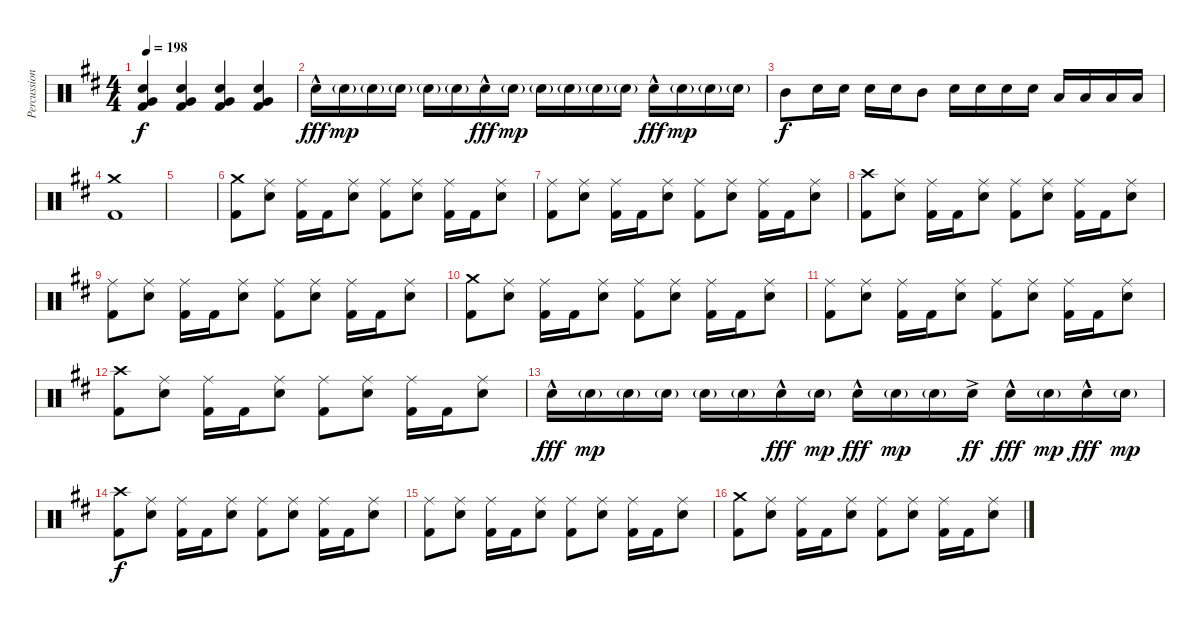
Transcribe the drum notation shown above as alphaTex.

\track ("Percussion" "Percussion") {instrument percussion}
\staff {score}
\articulation defaults
\ts (4 4)
\tempo 198
\clef neutral
\ks bminor
("Snare (hit) 2" "Very Low Tom (hit)" "Kick (hit) 2").4{dy f} ("Snare (hit) 2" "Very Low Tom (hit)" "Kick (hit) 2").4 ("Snare (hit) 2" "Very Low Tom (hit)" "Kick (hit) 2").4 ("Snare (hit) 2" "Very Low Tom (hit)" "Kick (hit) 2").4 |
"Snare (hit) 2"{hac}.16{dy fff} "Snare (hit) 2"{g}.16{dy mp} "Snare (hit) 2"{g}.16 "Snare (hit) 2"{g}.16 "Snare (hit) 2"{g}.16 "Snare (hit) 2"{g}.16 "Snare (hit) 2"{hac}.16{dy fff} "Snare (hit) 2"{g}.16{dy mp} "Snare (hit) 2"{g}.16 "Snare (hit) 2"{g}.16 "Snare (hit) 2"{g}.16 "Snare (hit) 2"{g}.16 "Snare (hit) 2"{hac}.16{dy fff} "Snare (hit) 2"{g}.16{dy mp} "Snare (hit) 2"{g}.16 "Snare (hit) 2"{g}.16 |
"Mid Tom (hit)".8{dy f} "Snare (hit) 2".16 "Snare (hit) 2".16 "Snare (hit) 2".16 "Snare (hit) 2".16 "Mid Tom (hit)".8 "Snare (hit) 2".16 "Snare (hit) 2".16 "Snare (hit) 2".16 "Snare (hit) 2".16 "Low Tom (hit)".16 "Low Tom (hit)".16 "Low Tom (hit)".16 "Low Tom (hit)".16 |
("Crash medium (hit)" "Kick (hit) 2").1 |
|
("Crash medium (hit)" "Kick (hit) 2").8 ("Ride (middle)" "Snare (hit) 2").8 ("Ride (middle)" "Kick (hit) 2").16 "Kick (hit) 2".16 ("Ride (middle)" "Snare (hit) 2").8 ("Ride (middle)" "Kick (hit) 2").8 ("Ride (middle)" "Snare (hit) 2").8 ("Ride (middle)" "Kick (hit) 2").16 "Kick (hit) 2".16 ("Ride (middle)" "Snare (hit) 2").8 |
("Ride (middle)" "Kick (hit) 2").8 ("Ride (middle)" "Snare (hit) 2").8 ("Ride (middle)" "Kick (hit) 2").16 "Kick (hit) 2".16 ("Ride (middle)" "Snare (hit) 2").8 ("Ride (middle)" "Kick (hit) 2").8 ("Ride (middle)" "Snare (hit) 2").8 ("Ride (middle)" "Kick (hit) 2").16 "Kick (hit) 2".16 ("Ride (middle)" "Snare (hit) 2").8 |
("Crash high (hit)" "Kick (hit) 2").8 ("Ride (middle)" "Snare (hit) 2").8 ("Ride (middle)" "Kick (hit) 2").16 "Kick (hit) 2".16 ("Ride (middle)" "Snare (hit) 2").8 ("Ride (middle)" "Kick (hit) 2").8 ("Ride (middle)" "Snare (hit) 2").8 ("Ride (middle)" "Kick (hit) 2").16 "Kick (hit) 2".16 ("Ride (middle)" "Snare (hit) 2").8 |
("Ride (middle)" "Kick (hit) 2").8 ("Ride (middle)" "Snare (hit) 2").8 ("Ride (middle)" "Kick (hit) 2").16 "Kick (hit) 2".16 ("Ride (middle)" "Snare (hit) 2").8 ("Ride (middle)" "Kick (hit) 2").8 ("Ride (middle)" "Snare (hit) 2").8 ("Ride (middle)" "Kick (hit) 2").16 "Kick (hit) 2".16 ("Ride (middle)" "Snare (hit) 2").8 |
("Crash medium (hit)" "Kick (hit) 2").8 ("Ride (middle)" "Snare (hit) 2").8 ("Ride (middle)" "Kick (hit) 2").16 "Kick (hit) 2".16 ("Ride (middle)" "Snare (hit) 2").8 ("Ride (middle)" "Kick (hit) 2").8 ("Ride (middle)" "Snare (hit) 2").8 ("Ride (middle)" "Kick (hit) 2").16 "Kick (hit) 2".16 ("Ride (middle)" "Snare (hit) 2").8 |
("Ride (middle)" "Kick (hit) 2").8 ("Ride (middle)" "Snare (hit) 2").8 ("Ride (middle)" "Kick (hit) 2").16 "Kick (hit) 2".16 ("Ride (middle)" "Snare (hit) 2").8 ("Ride (middle)" "Kick (hit) 2").8 ("Ride (middle)" "Snare (hit) 2").8 ("Ride (middle)" "Kick (hit) 2").16 "Kick (hit) 2".16 ("Ride (middle)" "Snare (hit) 2").8 |
("Crash high (hit)" "Kick (hit) 2").8 ("Ride (middle)" "Snare (hit) 2").8 ("Ride (middle)" "Kick (hit) 2").16 "Kick (hit) 2".16 ("Ride (middle)" "Snare (hit) 2").8 ("Ride (middle)" "Kick (hit) 2").8 ("Ride (middle)" "Snare (hit) 2").8 ("Ride (middle)" "Kick (hit) 2").16 "Kick (hit) 2".16 ("Ride (middle)" "Snare (hit) 2").8 |
"Snare (hit) 2"{hac}.16{dy fff} "Snare (hit) 2"{g}.16{dy mp} "Snare (hit) 2"{g}.16 "Snare (hit) 2"{g}.16 "Snare (hit) 2"{g}.16 "Snare (hit) 2"{g}.16 "Snare (hit) 2"{hac}.16{dy fff} "Snare (hit) 2"{g}.16{dy mp} "Snare (hit) 2"{hac}.16{dy fff} "Snare (hit) 2"{g}.16{dy mp} "Snare (hit) 2"{g}.16 "Snare (hit) 2"{ac}.16{dy ff} "Snare (hit) 2"{hac}.16{dy fff} "Snare (hit) 2"{g}.16{dy mp} "Snare (hit) 2"{hac}.16{dy fff} "Snare (hit) 2"{g}.16{dy mp} |
("Crash high (hit)" "Kick (hit) 2").8{dy f} ("Ride (middle)" "Snare (hit) 2").8 ("Ride (middle)" "Kick (hit) 2").16 "Kick (hit) 2".16 ("Ride (middle)" "Snare (hit) 2").8 ("Ride (middle)" "Kick (hit) 2").8 ("Ride (middle)" "Snare (hit) 2").8 ("Ride (middle)" "Kick (hit) 2").16 "Kick (hit) 2".16 ("Ride (middle)" "Snare (hit) 2").8 |
("Ride (middle)" "Kick (hit) 2").8 ("Ride (middle)" "Snare (hit) 2").8 ("Ride (middle)" "Kick (hit) 2").16 "Kick (hit) 2".16 ("Ride (middle)" "Snare (hit) 2").8 ("Ride (middle)" "Kick (hit) 2").8 ("Ride (middle)" "Snare (hit) 2").8 ("Ride (middle)" "Kick (hit) 2").16 "Kick (hit) 2".16 ("Ride (middle)" "Snare (hit) 2").8 |
("Crash medium (hit)" "Kick (hit) 2").8 ("Ride (middle)" "Snare (hit) 2").8 ("Ride (middle)" "Kick (hit) 2").16 "Kick (hit) 2".16 ("Ride (middle)" "Snare (hit) 2").8 ("Ride (middle)" "Kick (hit) 2").8 ("Ride (middle)" "Snare (hit) 2").8 ("Ride (middle)" "Kick (hit) 2").16 "Kick (hit) 2".16 ("Ride (middle)" "Snare (hit) 2").8
